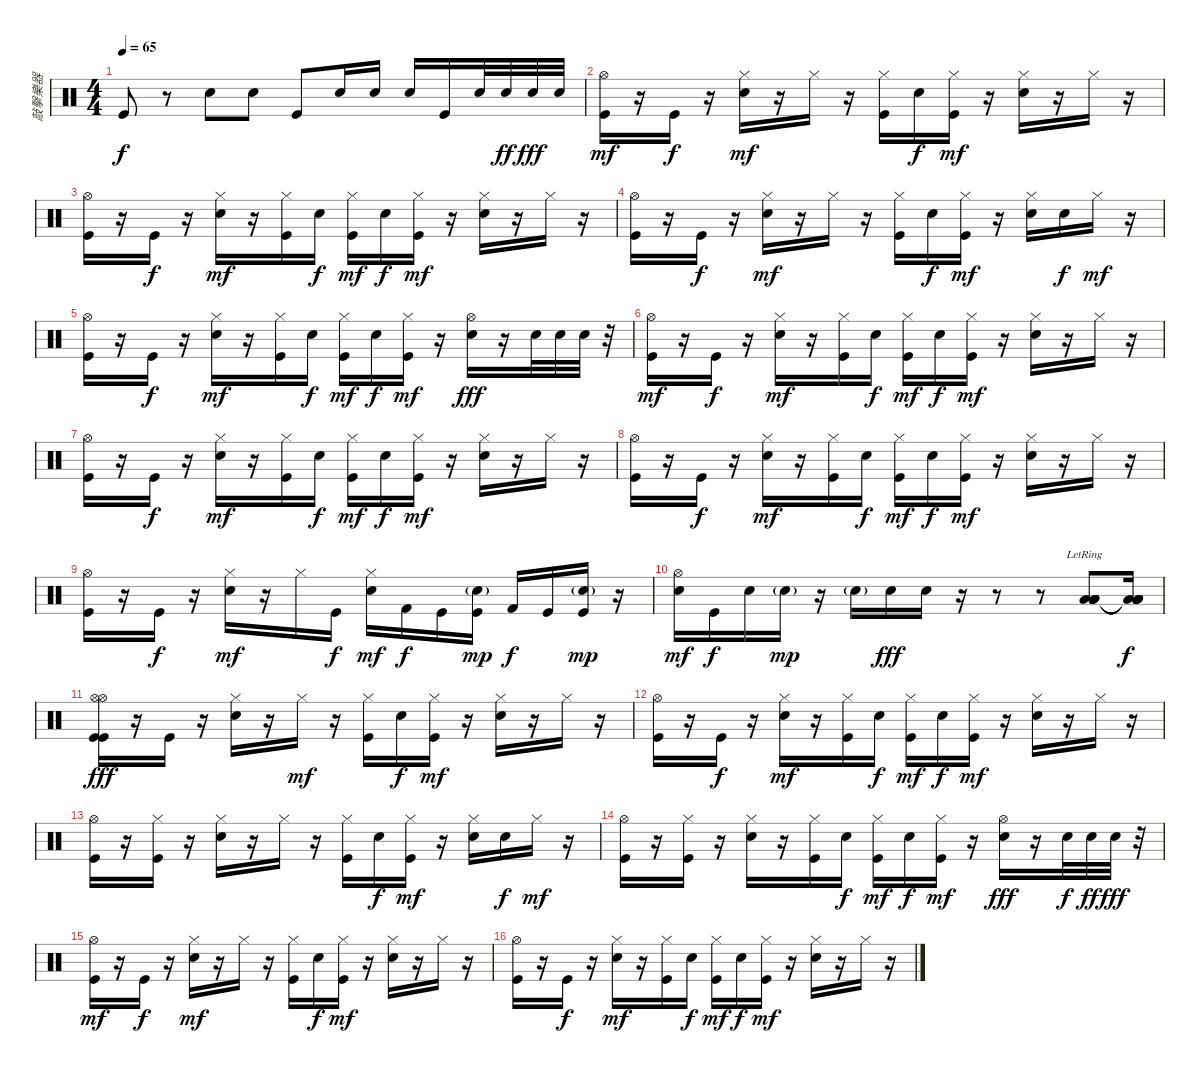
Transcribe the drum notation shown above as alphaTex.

\track ("敲擊樂器" "敲擊樂器") {instrument percussion}
\staff {score}
\articulation defaults
\ts (4 4)
\tempo 65
\clef neutral
\ks c "Kick (hit)".8{dy f}
r.8 "Electric Snare (hit)".8 "Electric Snare (hit)".8 "Kick (hit)".8 "Electric Snare (hit)".16 "Electric Snare (hit)".16 "Electric Snare (hit)".16 "Kick (hit)".16 "Electric Snare (hit)".32 "Electric Snare (hit)".32{dy ff} "Electric Snare (hit)".32{dy fff} "Electric Snare (hit)".32 |
("Hi-Hat (open)" "Kick (hit)").16{dy mf} r.16 "Kick (hit)".16{dy f} r.16 ("Hi-Hat (closed)" "Electric Snare (hit)").16{dy mf} r.16 "Hi-Hat (closed)".16 r.16 ("Hi-Hat (closed)" "Kick (hit)").16 "Electric Snare (hit)".16{dy f} ("Hi-Hat (closed)" "Kick (hit)").16{dy mf} r.16 ("Hi-Hat (closed)" "Electric Snare (hit)").16 r.16 "Hi-Hat (closed)".16 r.16 |
("Hi-Hat (open)" "Kick (hit)").16 r.16 "Kick (hit)".16{dy f} r.16 ("Hi-Hat (closed)" "Electric Snare (hit)").16{dy mf} r.16 ("Hi-Hat (closed)" "Kick (hit)").16 "Electric Snare (hit)".16{dy f} ("Hi-Hat (closed)" "Kick (hit)").16{dy mf} "Electric Snare (hit)".16{dy f} ("Hi-Hat (closed)" "Kick (hit)").16{dy mf} r.16 ("Hi-Hat (closed)" "Electric Snare (hit)").16 r.16 "Hi-Hat (closed)".16 r.16 |
("Hi-Hat (open)" "Kick (hit)").16 r.16 "Kick (hit)".16{dy f} r.16 ("Hi-Hat (closed)" "Electric Snare (hit)").16{dy mf} r.16 "Hi-Hat (closed)".16 r.16 ("Hi-Hat (closed)" "Kick (hit)").16 "Electric Snare (hit)".16{dy f} ("Hi-Hat (closed)" "Kick (hit)").16{dy mf} r.16 ("Hi-Hat (closed)" "Electric Snare (hit)").16 "Electric Snare (hit)".16{dy f} "Hi-Hat (closed)".16{dy mf} r.16 |
("Hi-Hat (open)" "Kick (hit)").16 r.16 "Kick (hit)".16{dy f} r.16 ("Hi-Hat (closed)" "Electric Snare (hit)").16{dy mf} r.16 ("Hi-Hat (closed)" "Kick (hit)").16 "Electric Snare (hit)".16{dy f} ("Hi-Hat (closed)" "Kick (hit)").16{dy mf} "Electric Snare (hit)".16{dy f} ("Hi-Hat (closed)" "Kick (hit)").16{dy mf} r.16 ("Hi-Hat (open)" "Electric Snare (hit)").16{dy fff} r.16 "Electric Snare (hit)".32 "Electric Snare (hit)".32 "Electric Snare (hit)".32 r.32 |
("Hi-Hat (open)" "Kick (hit)").16{dy mf} r.16 "Kick (hit)".16{dy f} r.16 ("Hi-Hat (closed)" "Electric Snare (hit)").16{dy mf} r.16 ("Hi-Hat (closed)" "Kick (hit)").16 "Electric Snare (hit)".16{dy f} ("Hi-Hat (closed)" "Kick (hit)").16{dy mf} "Electric Snare (hit)".16{dy f} ("Hi-Hat (closed)" "Kick (hit)").16{dy mf} r.16 ("Hi-Hat (closed)" "Electric Snare (hit)").16 r.16 "Hi-Hat (closed)".16 r.16 |
("Hi-Hat (open)" "Kick (hit)").16 r.16 "Kick (hit)".16{dy f} r.16 ("Hi-Hat (closed)" "Electric Snare (hit)").16{dy mf} r.16 ("Hi-Hat (closed)" "Kick (hit)").16 "Electric Snare (hit)".16{dy f} ("Hi-Hat (closed)" "Kick (hit)").16{dy mf} "Electric Snare (hit)".16{dy f} ("Hi-Hat (closed)" "Kick (hit)").16{dy mf} r.16 ("Hi-Hat (closed)" "Electric Snare (hit)").16 r.16 "Hi-Hat (closed)".16 r.16 |
("Hi-Hat (open)" "Kick (hit)").16 r.16 "Kick (hit)".16{dy f} r.16 ("Hi-Hat (closed)" "Electric Snare (hit)").16{dy mf} r.16 ("Hi-Hat (closed)" "Kick (hit)").16 "Electric Snare (hit)".16{dy f} ("Hi-Hat (closed)" "Kick (hit)").16{dy mf} "Electric Snare (hit)".16{dy f} ("Hi-Hat (closed)" "Kick (hit)").16{dy mf} r.16 ("Hi-Hat (closed)" "Electric Snare (hit)").16 r.16 "Hi-Hat (closed)".16 r.16 |
("Hi-Hat (open)" "Kick (hit)").16 r.16 "Kick (hit)".16{dy f} r.16 ("Hi-Hat (closed)" "Electric Snare (hit)").16{dy mf} r.16 "Hi-Hat (closed)".16 "Kick (hit)".16{dy f} ("Hi-Hat (closed)" "Electric Snare (hit)").16{dy mf} "Kick (hit) 2".16{dy f} "Kick (hit)".16 ("Electric Snare (hit)"{g} "Kick (hit)").16{dy mp} "Kick (hit) 2".16{dy f} "Kick (hit)".16 ("Electric Snare (hit)"{g} "Kick (hit)").16{dy mp} r.16 |
("Hi-Hat (open)" "Electric Snare (hit)").16{dy mf} "Kick (hit)".16{dy f} "Electric Snare (hit)".16 "Electric Snare (hit)"{g}.16{dy mp} r.16 "Electric Snare (hit)"{g}.16 "Electric Snare (hit)".16{dy fff} "Electric Snare (hit)".16 r.16 r.8 r.8 ("Low Floor Tom (hit)"{lr} "Low Floor Tom (hit)"{lr} "Low Floor Tom (hit)"{lr} "Low Floor Tom (hit)"{lr} "Low Floor Tom (hit)"{lr} "Low Floor Tom (hit)"{lr}).8{volume 16} ("Low Floor Tom (hit)"{t} "Low Floor Tom (hit)"{t} "Low Floor Tom (hit)"{t} "Low Floor Tom (hit)"{t} "Low Floor Tom (hit)"{t} "Low Floor Tom (hit)"{t}).16{dy f} |
("Hi-Hat (open)" "Hi-Hat (open)" "Kick (hit)" "Kick (hit)").16{dy fff volume 11} r.16 "Kick (hit)".16 r.16 ("Hi-Hat (closed)" "Electric Snare (hit)").16 r.16 "Hi-Hat (closed)".16{dy mf} r.16 ("Hi-Hat (closed)" "Kick (hit)").16 "Electric Snare (hit)".16{dy f} ("Hi-Hat (closed)" "Kick (hit)").16{dy mf} r.16 ("Hi-Hat (closed)" "Electric Snare (hit)").16 r.16 "Hi-Hat (closed)".16 r.16 |
("Hi-Hat (open)" "Kick (hit)").16 r.16 "Kick (hit)".16{dy f} r.16 ("Hi-Hat (closed)" "Electric Snare (hit)").16{dy mf} r.16 ("Hi-Hat (closed)" "Kick (hit)").16 "Electric Snare (hit)".16{dy f} ("Hi-Hat (closed)" "Kick (hit)").16{dy mf} "Electric Snare (hit)".16{dy f} ("Hi-Hat (closed)" "Kick (hit)").16{dy mf} r.16 ("Hi-Hat (closed)" "Electric Snare (hit)").16 r.16 "Hi-Hat (closed)".16 r.16 |
("Hi-Hat (open)" "Kick (hit)").16 r.16 ("Hi-Hat (closed)" "Kick (hit)").16 r.16 ("Hi-Hat (closed)" "Electric Snare (hit)").16 r.16 "Hi-Hat (closed)".16 r.16 ("Hi-Hat (closed)" "Kick (hit)").16 "Electric Snare (hit)".16{dy f} ("Hi-Hat (closed)" "Kick (hit)").16{dy mf} r.16 ("Hi-Hat (closed)" "Electric Snare (hit)").16 "Electric Snare (hit)".16{dy f} "Hi-Hat (closed)".16{dy mf} r.16 |
("Hi-Hat (open)" "Kick (hit)").16 r.16 ("Hi-Hat (closed)" "Kick (hit)").16 r.16 ("Hi-Hat (closed)" "Electric Snare (hit)").16 r.16 ("Hi-Hat (closed)" "Kick (hit)").16 "Electric Snare (hit)".16{dy f} ("Hi-Hat (closed)" "Kick (hit)").16{dy mf} "Electric Snare (hit)".16{dy f} ("Hi-Hat (closed)" "Kick (hit)").16{dy mf} r.16 ("Hi-Hat (open)" "Electric Snare (hit)").16{dy fff} r.16 "Electric Snare (hit)".32{dy f} "Electric Snare (hit)".32{dy ff} "Electric Snare (hit)".32{dy fff} r.32 |
("Hi-Hat (open)" "Kick (hit)").16{dy mf} r.16 "Kick (hit)".16{dy f} r.16 ("Hi-Hat (closed)" "Electric Snare (hit)").16{dy mf} r.16 "Hi-Hat (closed)".16 r.16 ("Hi-Hat (closed)" "Kick (hit)").16 "Electric Snare (hit)".16{dy f} ("Hi-Hat (closed)" "Kick (hit)").16{dy mf} r.16 ("Hi-Hat (closed)" "Electric Snare (hit)").16 r.16 "Hi-Hat (closed)".16 r.16 |
("Hi-Hat (open)" "Kick (hit)").16 r.16 "Kick (hit)".16{dy f} r.16 ("Hi-Hat (closed)" "Electric Snare (hit)").16{dy mf} r.16 ("Hi-Hat (closed)" "Kick (hit)").16 "Electric Snare (hit)".16{dy f} ("Hi-Hat (closed)" "Kick (hit)").16{dy mf} "Electric Snare (hit)".16{dy f} ("Hi-Hat (closed)" "Kick (hit)").16{dy mf} r.16 ("Hi-Hat (closed)" "Electric Snare (hit)").16 r.16 "Hi-Hat (closed)".16 r.16
